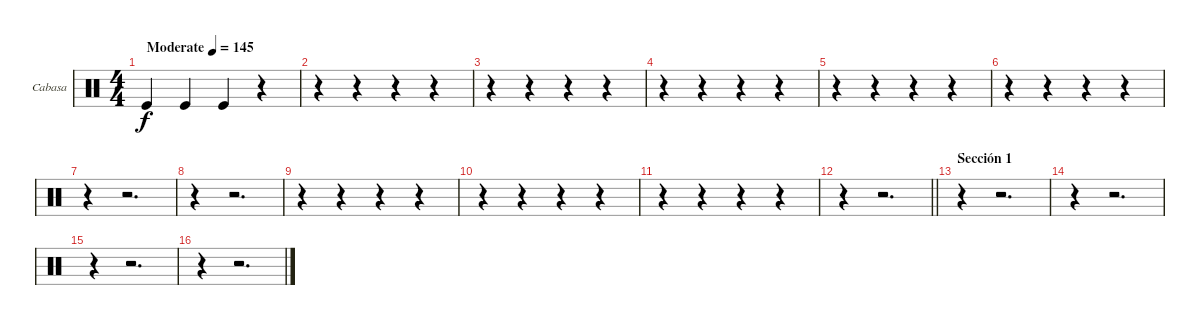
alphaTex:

\bracketExtendMode groupsimilarinstruments
\firstSystemTrackNameOrientation horizontal
\otherSystemsTrackNameOrientation horizontal
\track ("Cabasa" "Cabasa") {instrument percussion}
\staff {score}
\articulation defaults
\ts (4 4)
\beaming (8 2 2 2 2)
\tempo (145 "Moderate")
\clef neutral
\ks c "Kick (hit)".4{dy f} "Kick (hit)".4 "Kick (hit)".4
r.4 |
r.4 r.4 r.4 r.4 |
r.4 r.4 r.4 r.4 |
r.4 r.4 r.4 r.4 |
r.4 r.4 r.4 r.4 |
r.4 r.4 r.4 r.4 |
r.4 r.2{d} |
r.4 r.2{d} |
r.4 r.4 r.4 r.4 |
r.4 r.4 r.4 r.4 |
r.4 r.4 r.4 r.4 |
\barLineRight lightlight
r.4 r.2{d} |
\section ("" "Sección 1")
r.4 r.2{d} |
r.4 r.2{d} |
r.4 r.2{d} |
r.4 r.2{d}
